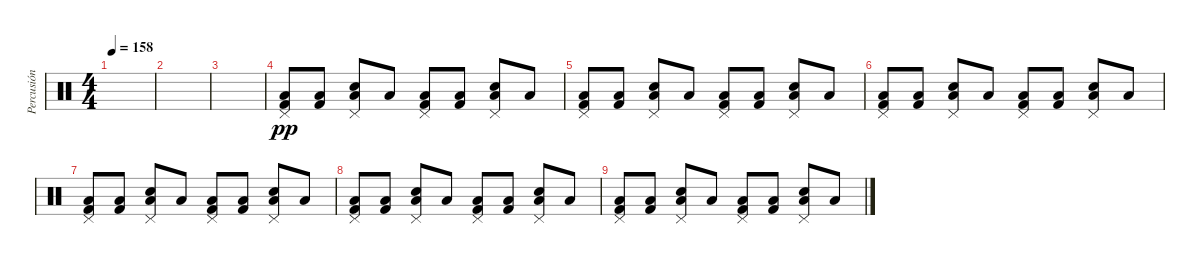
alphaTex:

\track ("Percusión" "Percusión") {instrument percussion}
\staff {score}
\articulation defaults
\ts (4 4)
\tempo 158
\clef neutral
\ks c
|
|
|
("Pedal Hi-Hat (hit)" "Low Floor Tom (hit)" "Kick (hit) 2").8{dy pp} ("Low Floor Tom (hit)" "Kick (hit) 2").8 ("Pedal Hi-Hat (hit)" "Low Floor Tom (hit)" "Electric Snare (hit)").8 "Low Floor Tom (hit)".8 ("Pedal Hi-Hat (hit)" "Low Floor Tom (hit)" "Kick (hit) 2").8 ("Low Floor Tom (hit)" "Kick (hit) 2").8 ("Pedal Hi-Hat (hit)" "Low Floor Tom (hit)" "Electric Snare (hit)").8 "Low Floor Tom (hit)".8 |
("Pedal Hi-Hat (hit)" "Low Floor Tom (hit)" "Kick (hit) 2").8 ("Low Floor Tom (hit)" "Kick (hit) 2").8 ("Pedal Hi-Hat (hit)" "Low Floor Tom (hit)" "Electric Snare (hit)").8 "Low Floor Tom (hit)".8 ("Pedal Hi-Hat (hit)" "Low Floor Tom (hit)" "Kick (hit) 2").8 ("Low Floor Tom (hit)" "Kick (hit) 2").8 ("Pedal Hi-Hat (hit)" "Low Floor Tom (hit)" "Electric Snare (hit)").8 "Low Floor Tom (hit)".8 |
("Pedal Hi-Hat (hit)" "Low Floor Tom (hit)" "Kick (hit) 2").8 ("Low Floor Tom (hit)" "Kick (hit) 2").8 ("Pedal Hi-Hat (hit)" "Low Floor Tom (hit)" "Electric Snare (hit)").8 "Low Floor Tom (hit)".8 ("Pedal Hi-Hat (hit)" "Low Floor Tom (hit)" "Kick (hit) 2").8 ("Low Floor Tom (hit)" "Kick (hit) 2").8 ("Pedal Hi-Hat (hit)" "Low Floor Tom (hit)" "Electric Snare (hit)").8 "Low Floor Tom (hit)".8 |
("Pedal Hi-Hat (hit)" "Low Floor Tom (hit)" "Kick (hit) 2").8 ("Low Floor Tom (hit)" "Kick (hit) 2").8 ("Pedal Hi-Hat (hit)" "Low Floor Tom (hit)" "Electric Snare (hit)").8 "Low Floor Tom (hit)".8 ("Pedal Hi-Hat (hit)" "Low Floor Tom (hit)" "Kick (hit) 2").8 ("Low Floor Tom (hit)" "Kick (hit) 2").8 ("Pedal Hi-Hat (hit)" "Low Floor Tom (hit)" "Electric Snare (hit)").8 "Low Floor Tom (hit)".8 |
("Pedal Hi-Hat (hit)" "Low Floor Tom (hit)" "Kick (hit) 2").8 ("Low Floor Tom (hit)" "Kick (hit) 2").8 ("Pedal Hi-Hat (hit)" "Low Floor Tom (hit)" "Electric Snare (hit)").8 "Low Floor Tom (hit)".8 ("Pedal Hi-Hat (hit)" "Low Floor Tom (hit)" "Kick (hit) 2").8 ("Low Floor Tom (hit)" "Kick (hit) 2").8 ("Pedal Hi-Hat (hit)" "Low Floor Tom (hit)" "Electric Snare (hit)").8 "Low Floor Tom (hit)".8 |
("Pedal Hi-Hat (hit)" "Low Floor Tom (hit)" "Kick (hit) 2").8 ("Low Floor Tom (hit)" "Kick (hit) 2").8 ("Pedal Hi-Hat (hit)" "Low Floor Tom (hit)" "Electric Snare (hit)").8 "Low Floor Tom (hit)".8 ("Pedal Hi-Hat (hit)" "Low Floor Tom (hit)" "Kick (hit) 2").8 ("Low Floor Tom (hit)" "Kick (hit) 2").8 ("Pedal Hi-Hat (hit)" "Low Floor Tom (hit)" "Electric Snare (hit)").8 "Low Floor Tom (hit)".8
